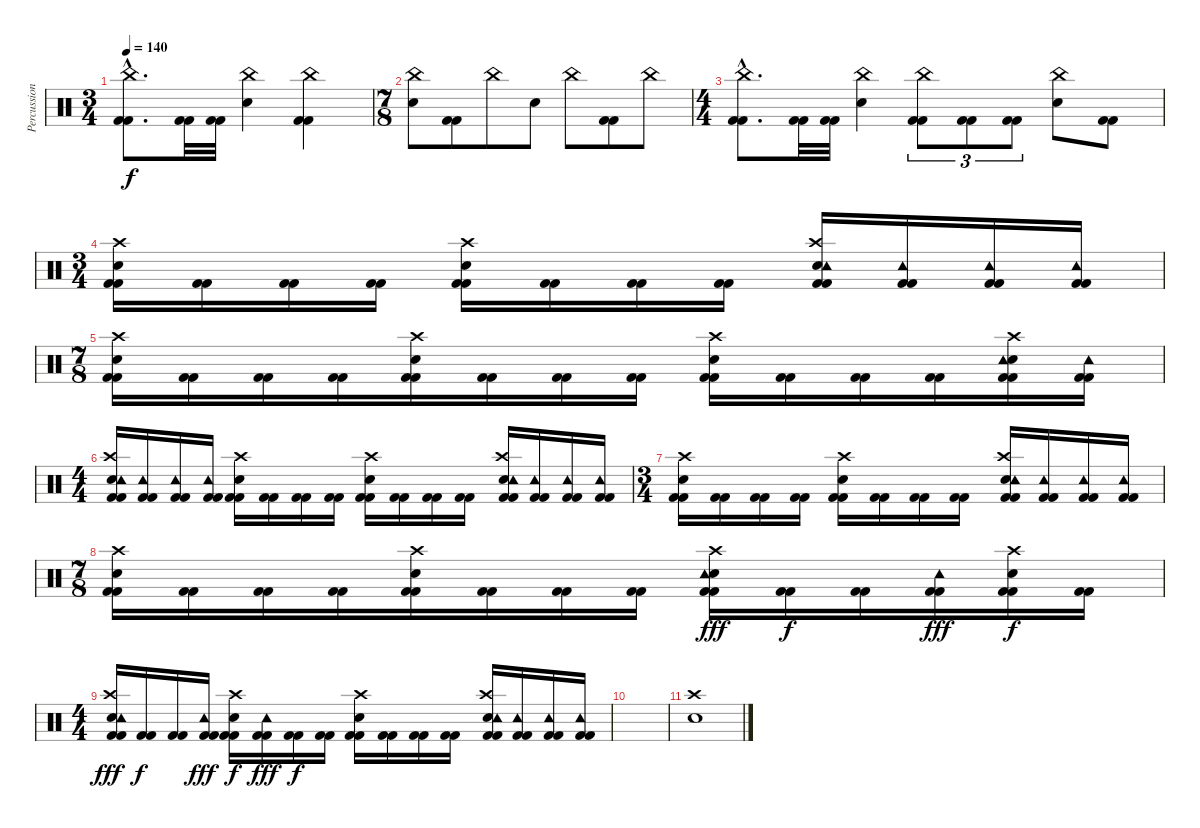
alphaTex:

\track ("Percussions" "Percussion") {instrument percussion}
\staff {score}
\articulation defaults
\ts (3 4)
\tempo 140
\clef neutral
\ks c
("Kick (hit) 2"{hac} "Kick (hit) 2"{hac} "China (hit)"{hac}).8{d dy f} ("Kick (hit) 2" "Kick (hit) 2").32 ("Kick (hit) 2" "Kick (hit) 2").32 ("Electric Snare (hit)" "China (hit)").4 ("Kick (hit) 2" "Kick (hit) 2" "China (hit)").4 |
\ts (7 8)
("Electric Snare (hit)" "China (hit)").8 ("Kick (hit) 2" "Kick (hit) 2").8 "China (hit)".8 "Electric Snare (hit)".8 "China (hit)".8 ("Kick (hit) 2" "Kick (hit) 2").8 "China (hit)".8 |
\ts (4 4)
("Kick (hit) 2"{hac} "Kick (hit) 2"{hac} "China (hit)"{hac}).8{d} ("Kick (hit) 2" "Kick (hit) 2").32 ("Kick (hit) 2" "Kick (hit) 2").32 ("Electric Snare (hit)" "China (hit)").4 ("Kick (hit) 2" "Kick (hit) 2" "China (hit)").8{tu (3 2)} ("Kick (hit) 2" "Kick (hit) 2").8{tu (3 2)} ("Kick (hit) 2" "Kick (hit) 2").8{tu (3 2)} ("Electric Snare (hit)" "China (hit)").8 ("Kick (hit) 2" "Kick (hit) 2").8 |
\ts (3 4)
("Kick (hit) 2" "Kick (hit) 2" "Electric Snare (hit)" "Crash high (hit)").16 ("Kick (hit) 2" "Kick (hit) 2").16 ("Kick (hit) 2" "Kick (hit) 2").16 ("Kick (hit) 2" "Kick (hit) 2").16 ("Kick (hit) 2" "Kick (hit) 2" "Electric Snare (hit)" "Crash high (hit)").16 ("Kick (hit) 2" "Kick (hit) 2").16 ("Kick (hit) 2" "Kick (hit) 2").16 ("Kick (hit) 2" "Kick (hit) 2").16 ("Kick (hit) 2" "Kick (hit) 2" "Electric Snare (hit)" "Tambourine (hit)" "Crash high (hit)").16 ("Kick (hit) 2" "Kick (hit) 2" "Tambourine (hit)").16 ("Kick (hit) 2" "Kick (hit) 2" "Tambourine (hit)").16 ("Kick (hit) 2" "Kick (hit) 2" "Tambourine (hit)").16 |
\ts (7 8)
("Kick (hit) 2" "Kick (hit) 2" "Electric Snare (hit)" "Crash high (hit)").16 ("Kick (hit) 2" "Kick (hit) 2").16 ("Kick (hit) 2" "Kick (hit) 2").16 ("Kick (hit) 2" "Kick (hit) 2").16 ("Kick (hit) 2" "Kick (hit) 2" "Electric Snare (hit)" "Crash high (hit)").16 ("Kick (hit) 2" "Kick (hit) 2").16 ("Kick (hit) 2" "Kick (hit) 2").16 ("Kick (hit) 2" "Kick (hit) 2").16 ("Kick (hit) 2" "Kick (hit) 2" "Electric Snare (hit)" "Crash high (hit)").16 ("Kick (hit) 2" "Kick (hit) 2").16 ("Kick (hit) 2" "Kick (hit) 2").16 ("Kick (hit) 2" "Kick (hit) 2").16 ("Kick (hit) 2" "Kick (hit) 2" "Electric Snare (hit)" "Tambourine (hit)" "Crash high (hit)").16 ("Kick (hit) 2" "Kick (hit) 2" "Tambourine (hit)").16 |
\ts (4 4)
("Kick (hit) 2" "Kick (hit) 2" "Electric Snare (hit)" "Tambourine (hit)" "Crash high (hit)").16 ("Kick (hit) 2" "Kick (hit) 2" "Tambourine (hit)").16 ("Kick (hit) 2" "Kick (hit) 2" "Tambourine (hit)").16 ("Kick (hit) 2" "Kick (hit) 2" "Tambourine (hit)").16 ("Kick (hit) 2" "Kick (hit) 2" "Electric Snare (hit)" "Crash high (hit)").16 ("Kick (hit) 2" "Kick (hit) 2").16 ("Kick (hit) 2" "Kick (hit) 2").16 ("Kick (hit) 2" "Kick (hit) 2").16 ("Kick (hit) 2" "Kick (hit) 2" "Electric Snare (hit)" "Crash high (hit)").16 ("Kick (hit) 2" "Kick (hit) 2").16 ("Kick (hit) 2" "Kick (hit) 2").16 ("Kick (hit) 2" "Kick (hit) 2").16 ("Kick (hit) 2" "Kick (hit) 2" "Electric Snare (hit)" "Tambourine (hit)" "Crash high (hit)").16 ("Kick (hit) 2" "Kick (hit) 2" "Tambourine (hit)").16 ("Kick (hit) 2" "Kick (hit) 2" "Tambourine (hit)").16 ("Kick (hit) 2" "Kick (hit) 2" "Tambourine (hit)").16 |
\ts (3 4)
("Kick (hit) 2" "Kick (hit) 2" "Electric Snare (hit)" "Crash high (hit)").16 ("Kick (hit) 2" "Kick (hit) 2").16 ("Kick (hit) 2" "Kick (hit) 2").16 ("Kick (hit) 2" "Kick (hit) 2").16 ("Kick (hit) 2" "Kick (hit) 2" "Electric Snare (hit)" "Crash high (hit)").16 ("Kick (hit) 2" "Kick (hit) 2").16 ("Kick (hit) 2" "Kick (hit) 2").16 ("Kick (hit) 2" "Kick (hit) 2").16 ("Kick (hit) 2" "Kick (hit) 2" "Electric Snare (hit)" "Tambourine (hit)" "Crash high (hit)").16 ("Kick (hit) 2" "Kick (hit) 2" "Tambourine (hit)").16 ("Kick (hit) 2" "Kick (hit) 2" "Tambourine (hit)").16 ("Kick (hit) 2" "Kick (hit) 2" "Tambourine (hit)").16 |
\ts (7 8)
("Kick (hit) 2" "Kick (hit) 2" "Electric Snare (hit)" "Crash high (hit)").16 ("Kick (hit) 2" "Kick (hit) 2").16 ("Kick (hit) 2" "Kick (hit) 2").16 ("Kick (hit) 2" "Kick (hit) 2").16 ("Kick (hit) 2" "Kick (hit) 2" "Electric Snare (hit)" "Crash high (hit)").16 ("Kick (hit) 2" "Kick (hit) 2").16 ("Kick (hit) 2" "Kick (hit) 2").16 ("Kick (hit) 2" "Kick (hit) 2").16 ("Kick (hit) 2" "Kick (hit) 2" "Electric Snare (hit)" "Tambourine (hit)" "Crash high (hit)").16{dy fff} ("Kick (hit) 2" "Kick (hit) 2").16{dy f} ("Kick (hit) 2" "Kick (hit) 2").16 ("Kick (hit) 2" "Kick (hit) 2" "Tambourine (hit)").16{dy fff} ("Kick (hit) 2" "Kick (hit) 2" "Electric Snare (hit)" "Crash high (hit)").16{dy f} ("Kick (hit) 2" "Kick (hit) 2").16 |
\ts (4 4)
("Kick (hit) 2" "Kick (hit) 2" "Electric Snare (hit)" "Tambourine (hit)" "Crash high (hit)").16{dy fff} ("Kick (hit) 2" "Kick (hit) 2").16{dy f} ("Kick (hit) 2" "Kick (hit) 2").16 ("Kick (hit) 2" "Kick (hit) 2" "Tambourine (hit)").16{dy fff} ("Kick (hit) 2" "Kick (hit) 2" "Electric Snare (hit)" "Crash high (hit)").16{dy f} ("Kick (hit) 2" "Kick (hit) 2" "Tambourine (hit)").16{dy fff} ("Kick (hit) 2" "Kick (hit) 2").16{dy f} ("Kick (hit) 2" "Kick (hit) 2").16 ("Kick (hit) 2" "Kick (hit) 2" "Electric Snare (hit)" "Crash high (hit)").16 ("Kick (hit) 2" "Kick (hit) 2").16 ("Kick (hit) 2" "Kick (hit) 2").16 ("Kick (hit) 2" "Kick (hit) 2").16 ("Kick (hit) 2" "Kick (hit) 2" "Electric Snare (hit)" "Tambourine (hit)" "Crash high (hit)").16 ("Kick (hit) 2" "Kick (hit) 2" "Tambourine (hit)").16 ("Kick (hit) 2" "Kick (hit) 2" "Tambourine (hit)").16 ("Kick (hit) 2" "Kick (hit) 2" "Tambourine (hit)").16 |
|
("Electric Snare (hit)" "Crash high (hit)").1
